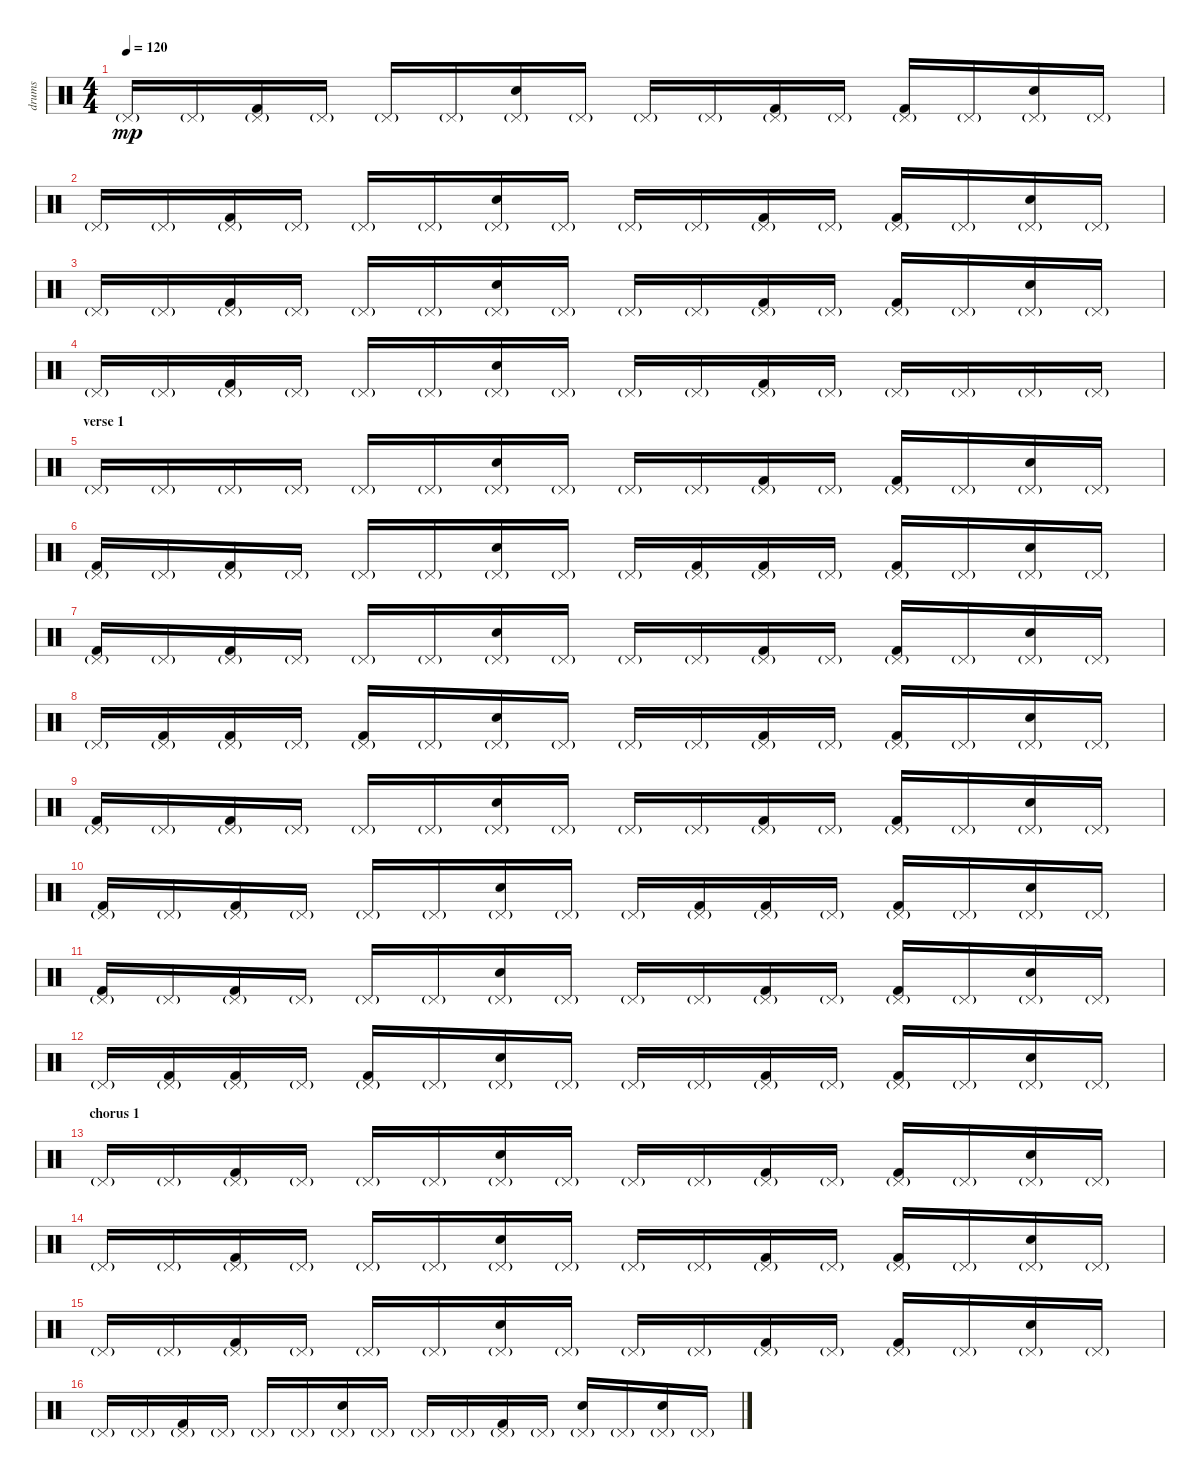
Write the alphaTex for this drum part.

\track ("drums" "drums") {instrument percussion}
\staff {score}
\articulation defaults
\ts (4 4)
\tempo 120
\clef neutral
\ks c "Pedal Hi-Hat (hit)"{g}.16{dy mp} "Pedal Hi-Hat (hit)"{g}.16
("Kick (hit) 2" "Pedal Hi-Hat (hit)"{g}).16 "Pedal Hi-Hat (hit)"{g}.16 "Pedal Hi-Hat (hit)"{g}.16 "Pedal Hi-Hat (hit)"{g}.16 ("Snare (hit) 2" "Pedal Hi-Hat (hit)"{g}).16 "Pedal Hi-Hat (hit)"{g}.16 "Pedal Hi-Hat (hit)"{g}.16 "Pedal Hi-Hat (hit)"{g}.16 ("Kick (hit) 2" "Pedal Hi-Hat (hit)"{g}).16 "Pedal Hi-Hat (hit)"{g}.16 ("Kick (hit) 2" "Pedal Hi-Hat (hit)"{g}).16 "Pedal Hi-Hat (hit)"{g}.16 ("Snare (hit) 2" "Pedal Hi-Hat (hit)"{g}).16 "Pedal Hi-Hat (hit)"{g}.16 |
"Pedal Hi-Hat (hit)"{g}.16 "Pedal Hi-Hat (hit)"{g}.16 ("Kick (hit) 2" "Pedal Hi-Hat (hit)"{g}).16 "Pedal Hi-Hat (hit)"{g}.16 "Pedal Hi-Hat (hit)"{g}.16 "Pedal Hi-Hat (hit)"{g}.16 ("Snare (hit) 2" "Pedal Hi-Hat (hit)"{g}).16 "Pedal Hi-Hat (hit)"{g}.16 "Pedal Hi-Hat (hit)"{g}.16 "Pedal Hi-Hat (hit)"{g}.16 ("Kick (hit) 2" "Pedal Hi-Hat (hit)"{g}).16 "Pedal Hi-Hat (hit)"{g}.16 ("Kick (hit) 2" "Pedal Hi-Hat (hit)"{g}).16 "Pedal Hi-Hat (hit)"{g}.16 ("Snare (hit) 2" "Pedal Hi-Hat (hit)"{g}).16 "Pedal Hi-Hat (hit)"{g}.16 |
"Pedal Hi-Hat (hit)"{g}.16 "Pedal Hi-Hat (hit)"{g}.16 ("Kick (hit) 2" "Pedal Hi-Hat (hit)"{g}).16 "Pedal Hi-Hat (hit)"{g}.16 "Pedal Hi-Hat (hit)"{g}.16 "Pedal Hi-Hat (hit)"{g}.16 ("Snare (hit) 2" "Pedal Hi-Hat (hit)"{g}).16 "Pedal Hi-Hat (hit)"{g}.16 "Pedal Hi-Hat (hit)"{g}.16 "Pedal Hi-Hat (hit)"{g}.16 ("Kick (hit) 2" "Pedal Hi-Hat (hit)"{g}).16 "Pedal Hi-Hat (hit)"{g}.16 ("Kick (hit) 2" "Pedal Hi-Hat (hit)"{g}).16 "Pedal Hi-Hat (hit)"{g}.16 ("Snare (hit) 2" "Pedal Hi-Hat (hit)"{g}).16 "Pedal Hi-Hat (hit)"{g}.16 |
"Pedal Hi-Hat (hit)"{g}.16 "Pedal Hi-Hat (hit)"{g}.16 ("Kick (hit) 2" "Pedal Hi-Hat (hit)"{g}).16 "Pedal Hi-Hat (hit)"{g}.16 "Pedal Hi-Hat (hit)"{g}.16 "Pedal Hi-Hat (hit)"{g}.16 ("Snare (hit) 2" "Pedal Hi-Hat (hit)"{g}).16 "Pedal Hi-Hat (hit)"{g}.16 "Pedal Hi-Hat (hit)"{g}.16 "Pedal Hi-Hat (hit)"{g}.16 ("Kick (hit) 2" "Pedal Hi-Hat (hit)"{g}).16 "Pedal Hi-Hat (hit)"{g}.16 "Pedal Hi-Hat (hit)"{g}.16 "Pedal Hi-Hat (hit)"{g}.16 "Pedal Hi-Hat (hit)"{g}.16 "Pedal Hi-Hat (hit)"{g}.16 |
\section ("" "verse 1")
"Pedal Hi-Hat (hit)"{g}.16 "Pedal Hi-Hat (hit)"{g}.16 "Pedal Hi-Hat (hit)"{g}.16 "Pedal Hi-Hat (hit)"{g}.16 "Pedal Hi-Hat (hit)"{g}.16 "Pedal Hi-Hat (hit)"{g}.16 ("Hand Clap (hit)" "Pedal Hi-Hat (hit)"{g}).16 "Pedal Hi-Hat (hit)"{g}.16 "Pedal Hi-Hat (hit)"{g}.16 "Pedal Hi-Hat (hit)"{g}.16 ("Kick (hit) 2" "Pedal Hi-Hat (hit)"{g}).16 "Pedal Hi-Hat (hit)"{g}.16 ("Kick (hit) 2" "Pedal Hi-Hat (hit)"{g}).16 "Pedal Hi-Hat (hit)"{g}.16 ("Hand Clap (hit)" "Pedal Hi-Hat (hit)"{g}).16 "Pedal Hi-Hat (hit)"{g}.16 |
("Kick (hit) 2" "Pedal Hi-Hat (hit)"{g}).16 "Pedal Hi-Hat (hit)"{g}.16 ("Kick (hit) 2" "Pedal Hi-Hat (hit)"{g}).16 "Pedal Hi-Hat (hit)"{g}.16 "Pedal Hi-Hat (hit)"{g}.16 "Pedal Hi-Hat (hit)"{g}.16 ("Hand Clap (hit)" "Pedal Hi-Hat (hit)"{g}).16 "Pedal Hi-Hat (hit)"{g}.16 "Pedal Hi-Hat (hit)"{g}.16 ("Kick (hit) 2" "Pedal Hi-Hat (hit)"{g}).16 ("Kick (hit) 2" "Pedal Hi-Hat (hit)"{g}).16 "Pedal Hi-Hat (hit)"{g}.16 ("Kick (hit) 2" "Pedal Hi-Hat (hit)"{g}).16 "Pedal Hi-Hat (hit)"{g}.16 ("Hand Clap (hit)" "Pedal Hi-Hat (hit)"{g}).16 "Pedal Hi-Hat (hit)"{g}.16 |
("Kick (hit) 2" "Pedal Hi-Hat (hit)"{g}).16 "Pedal Hi-Hat (hit)"{g}.16 ("Kick (hit) 2" "Pedal Hi-Hat (hit)"{g}).16 "Pedal Hi-Hat (hit)"{g}.16 "Pedal Hi-Hat (hit)"{g}.16 "Pedal Hi-Hat (hit)"{g}.16 ("Hand Clap (hit)" "Pedal Hi-Hat (hit)"{g}).16 "Pedal Hi-Hat (hit)"{g}.16 "Pedal Hi-Hat (hit)"{g}.16 "Pedal Hi-Hat (hit)"{g}.16 ("Kick (hit) 2" "Pedal Hi-Hat (hit)"{g}).16 "Pedal Hi-Hat (hit)"{g}.16 ("Kick (hit) 2" "Pedal Hi-Hat (hit)"{g}).16 "Pedal Hi-Hat (hit)"{g}.16 ("Hand Clap (hit)" "Pedal Hi-Hat (hit)"{g}).16 "Pedal Hi-Hat (hit)"{g}.16 |
"Pedal Hi-Hat (hit)"{g}.16 ("Kick (hit) 2" "Pedal Hi-Hat (hit)"{g}).16 ("Kick (hit) 2" "Pedal Hi-Hat (hit)"{g}).16 "Pedal Hi-Hat (hit)"{g}.16 ("Kick (hit) 2" "Pedal Hi-Hat (hit)"{g}).16 "Pedal Hi-Hat (hit)"{g}.16 ("Hand Clap (hit)" "Pedal Hi-Hat (hit)"{g}).16 "Pedal Hi-Hat (hit)"{g}.16 "Pedal Hi-Hat (hit)"{g}.16 "Pedal Hi-Hat (hit)"{g}.16 ("Kick (hit) 2" "Pedal Hi-Hat (hit)"{g}).16 "Pedal Hi-Hat (hit)"{g}.16 ("Kick (hit) 2" "Pedal Hi-Hat (hit)"{g}).16 "Pedal Hi-Hat (hit)"{g}.16 ("Hand Clap (hit)" "Pedal Hi-Hat (hit)"{g}).16 "Pedal Hi-Hat (hit)"{g}.16 |
("Kick (hit) 2" "Pedal Hi-Hat (hit)"{g}).16 "Pedal Hi-Hat (hit)"{g}.16 ("Kick (hit) 2" "Pedal Hi-Hat (hit)"{g}).16 "Pedal Hi-Hat (hit)"{g}.16 "Pedal Hi-Hat (hit)"{g}.16 "Pedal Hi-Hat (hit)"{g}.16 ("Hand Clap (hit)" "Pedal Hi-Hat (hit)"{g}).16 "Pedal Hi-Hat (hit)"{g}.16 "Pedal Hi-Hat (hit)"{g}.16 "Pedal Hi-Hat (hit)"{g}.16 ("Kick (hit) 2" "Pedal Hi-Hat (hit)"{g}).16 "Pedal Hi-Hat (hit)"{g}.16 ("Kick (hit) 2" "Pedal Hi-Hat (hit)"{g}).16 "Pedal Hi-Hat (hit)"{g}.16 ("Hand Clap (hit)" "Pedal Hi-Hat (hit)"{g}).16 "Pedal Hi-Hat (hit)"{g}.16 |
("Kick (hit) 2" "Pedal Hi-Hat (hit)"{g}).16 "Pedal Hi-Hat (hit)"{g}.16 ("Kick (hit) 2" "Pedal Hi-Hat (hit)"{g}).16 "Pedal Hi-Hat (hit)"{g}.16 "Pedal Hi-Hat (hit)"{g}.16 "Pedal Hi-Hat (hit)"{g}.16 ("Hand Clap (hit)" "Pedal Hi-Hat (hit)"{g}).16 "Pedal Hi-Hat (hit)"{g}.16 "Pedal Hi-Hat (hit)"{g}.16 ("Kick (hit) 2" "Pedal Hi-Hat (hit)"{g}).16 ("Kick (hit) 2" "Pedal Hi-Hat (hit)"{g}).16 "Pedal Hi-Hat (hit)"{g}.16 ("Kick (hit) 2" "Pedal Hi-Hat (hit)"{g}).16 "Pedal Hi-Hat (hit)"{g}.16 ("Hand Clap (hit)" "Pedal Hi-Hat (hit)"{g}).16 "Pedal Hi-Hat (hit)"{g}.16 |
("Kick (hit) 2" "Pedal Hi-Hat (hit)"{g}).16 "Pedal Hi-Hat (hit)"{g}.16 ("Kick (hit) 2" "Pedal Hi-Hat (hit)"{g}).16 "Pedal Hi-Hat (hit)"{g}.16 "Pedal Hi-Hat (hit)"{g}.16 "Pedal Hi-Hat (hit)"{g}.16 ("Hand Clap (hit)" "Pedal Hi-Hat (hit)"{g}).16 "Pedal Hi-Hat (hit)"{g}.16 "Pedal Hi-Hat (hit)"{g}.16 "Pedal Hi-Hat (hit)"{g}.16 ("Kick (hit) 2" "Pedal Hi-Hat (hit)"{g}).16 "Pedal Hi-Hat (hit)"{g}.16 ("Kick (hit) 2" "Pedal Hi-Hat (hit)"{g}).16 "Pedal Hi-Hat (hit)"{g}.16 ("Hand Clap (hit)" "Pedal Hi-Hat (hit)"{g}).16 "Pedal Hi-Hat (hit)"{g}.16 |
"Pedal Hi-Hat (hit)"{g}.16 ("Kick (hit) 2" "Pedal Hi-Hat (hit)"{g}).16 ("Kick (hit) 2" "Pedal Hi-Hat (hit)"{g}).16 "Pedal Hi-Hat (hit)"{g}.16 ("Kick (hit) 2" "Pedal Hi-Hat (hit)"{g}).16 "Pedal Hi-Hat (hit)"{g}.16 ("Hand Clap (hit)" "Pedal Hi-Hat (hit)"{g}).16 "Pedal Hi-Hat (hit)"{g}.16 "Pedal Hi-Hat (hit)"{g}.16 "Pedal Hi-Hat (hit)"{g}.16 ("Kick (hit) 2" "Pedal Hi-Hat (hit)"{g}).16 "Pedal Hi-Hat (hit)"{g}.16 ("Kick (hit) 2" "Pedal Hi-Hat (hit)"{g}).16 "Pedal Hi-Hat (hit)"{g}.16 ("Hand Clap (hit)" "Pedal Hi-Hat (hit)"{g}).16 "Pedal Hi-Hat (hit)"{g}.16 |
\section ("" "chorus 1")
"Pedal Hi-Hat (hit)"{g}.16 "Pedal Hi-Hat (hit)"{g}.16 ("Kick (hit) 2" "Pedal Hi-Hat (hit)"{g}).16 "Pedal Hi-Hat (hit)"{g}.16 "Pedal Hi-Hat (hit)"{g}.16 "Pedal Hi-Hat (hit)"{g}.16 ("Snare (hit) 2" "Pedal Hi-Hat (hit)"{g}).16 "Pedal Hi-Hat (hit)"{g}.16 "Pedal Hi-Hat (hit)"{g}.16 "Pedal Hi-Hat (hit)"{g}.16 ("Kick (hit) 2" "Pedal Hi-Hat (hit)"{g}).16 "Pedal Hi-Hat (hit)"{g}.16 ("Kick (hit) 2" "Pedal Hi-Hat (hit)"{g}).16 "Pedal Hi-Hat (hit)"{g}.16 ("Snare (hit) 2" "Pedal Hi-Hat (hit)"{g}).16 "Pedal Hi-Hat (hit)"{g}.16 |
"Pedal Hi-Hat (hit)"{g}.16 "Pedal Hi-Hat (hit)"{g}.16 ("Kick (hit) 2" "Pedal Hi-Hat (hit)"{g}).16 "Pedal Hi-Hat (hit)"{g}.16 "Pedal Hi-Hat (hit)"{g}.16 "Pedal Hi-Hat (hit)"{g}.16 ("Snare (hit) 2" "Pedal Hi-Hat (hit)"{g}).16 "Pedal Hi-Hat (hit)"{g}.16 "Pedal Hi-Hat (hit)"{g}.16 "Pedal Hi-Hat (hit)"{g}.16 ("Kick (hit) 2" "Pedal Hi-Hat (hit)"{g}).16 "Pedal Hi-Hat (hit)"{g}.16 ("Kick (hit) 2" "Pedal Hi-Hat (hit)"{g}).16 "Pedal Hi-Hat (hit)"{g}.16 ("Snare (hit) 2" "Pedal Hi-Hat (hit)"{g}).16 "Pedal Hi-Hat (hit)"{g}.16 |
"Pedal Hi-Hat (hit)"{g}.16 "Pedal Hi-Hat (hit)"{g}.16 ("Kick (hit) 2" "Pedal Hi-Hat (hit)"{g}).16 "Pedal Hi-Hat (hit)"{g}.16 "Pedal Hi-Hat (hit)"{g}.16 "Pedal Hi-Hat (hit)"{g}.16 ("Snare (hit) 2" "Pedal Hi-Hat (hit)"{g}).16 "Pedal Hi-Hat (hit)"{g}.16 "Pedal Hi-Hat (hit)"{g}.16 "Pedal Hi-Hat (hit)"{g}.16 ("Kick (hit) 2" "Pedal Hi-Hat (hit)"{g}).16 "Pedal Hi-Hat (hit)"{g}.16 ("Kick (hit) 2" "Pedal Hi-Hat (hit)"{g}).16 "Pedal Hi-Hat (hit)"{g}.16 ("Snare (hit) 2" "Pedal Hi-Hat (hit)"{g}).16 "Pedal Hi-Hat (hit)"{g}.16 |
"Pedal Hi-Hat (hit)"{g}.16 "Pedal Hi-Hat (hit)"{g}.16 ("Kick (hit) 2" "Pedal Hi-Hat (hit)"{g}).16 "Pedal Hi-Hat (hit)"{g}.16 "Pedal Hi-Hat (hit)"{g}.16 "Pedal Hi-Hat (hit)"{g}.16 ("Snare (hit) 2" "Pedal Hi-Hat (hit)"{g}).16 "Pedal Hi-Hat (hit)"{g}.16 "Pedal Hi-Hat (hit)"{g}.16 "Pedal Hi-Hat (hit)"{g}.16 ("Kick (hit) 2" "Pedal Hi-Hat (hit)"{g}).16 "Pedal Hi-Hat (hit)"{g}.16 ("Snare (hit) 2" "Pedal Hi-Hat (hit)"{g}).16 "Pedal Hi-Hat (hit)"{g}.16 ("Snare (hit) 2" "Pedal Hi-Hat (hit)"{g}).16 "Pedal Hi-Hat (hit)"{g}.16
